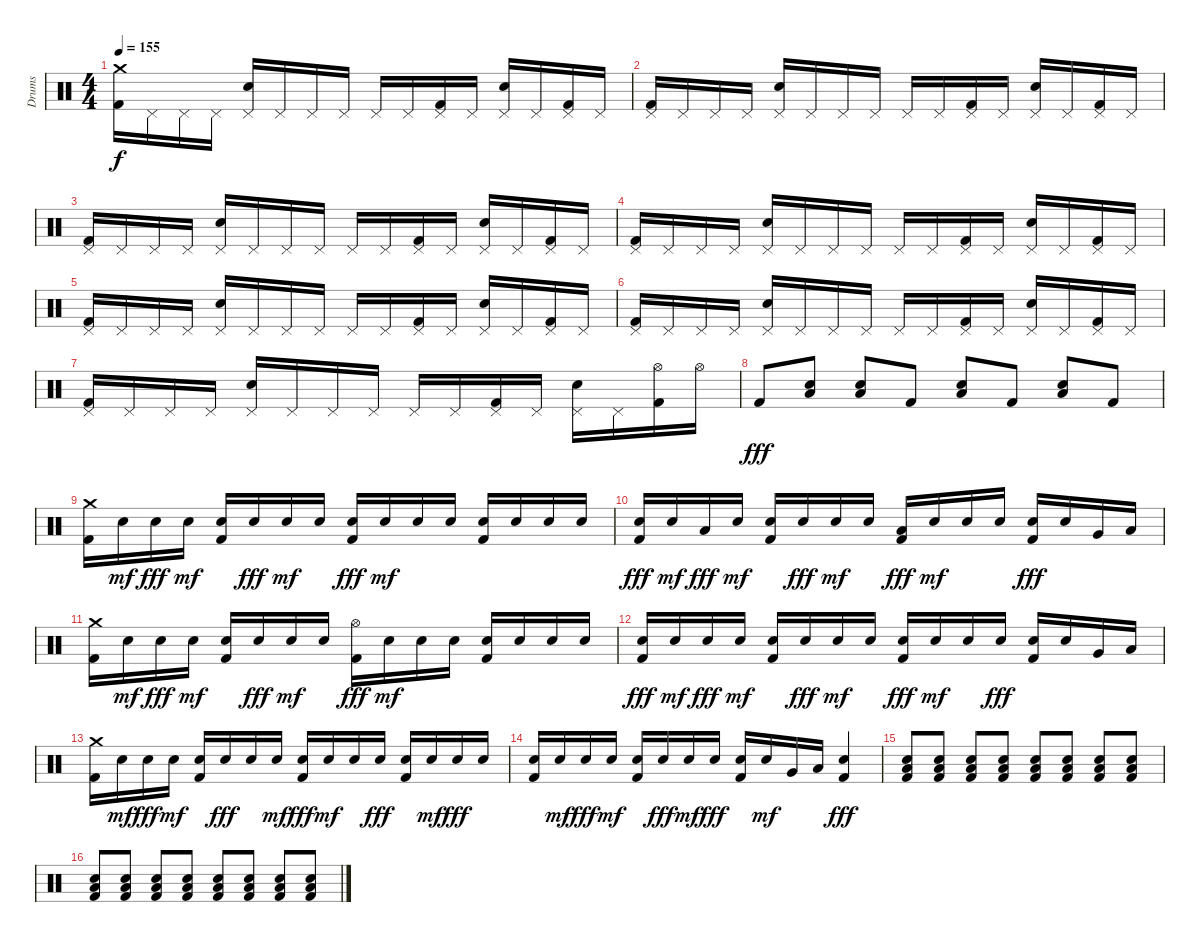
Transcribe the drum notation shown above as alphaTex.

\track ("Drums" "Drums") {instrument percussion}
\staff {score}
\articulation defaults
\ts (4 4)
\tempo 155
\clef neutral
\ks c
("Crash medium (hit)" "Kick (hit) 2").16{dy f} "Pedal Hi-Hat (hit)".16 "Pedal Hi-Hat (hit)".16 "Pedal Hi-Hat (hit)".16 ("Pedal Hi-Hat (hit)" "Electric Snare (hit)").16 "Pedal Hi-Hat (hit)".16 "Pedal Hi-Hat (hit)".16 "Pedal Hi-Hat (hit)".16 "Pedal Hi-Hat (hit)".16 "Pedal Hi-Hat (hit)".16 ("Pedal Hi-Hat (hit)" "Kick (hit) 2").16 "Pedal Hi-Hat (hit)".16 ("Pedal Hi-Hat (hit)" "Electric Snare (hit)").16 "Pedal Hi-Hat (hit)".16 ("Pedal Hi-Hat (hit)" "Kick (hit) 2").16 "Pedal Hi-Hat (hit)".16 |
("Pedal Hi-Hat (hit)" "Kick (hit) 2").16 "Pedal Hi-Hat (hit)".16 "Pedal Hi-Hat (hit)".16 "Pedal Hi-Hat (hit)".16 ("Pedal Hi-Hat (hit)" "Electric Snare (hit)").16 "Pedal Hi-Hat (hit)".16 "Pedal Hi-Hat (hit)".16 "Pedal Hi-Hat (hit)".16 "Pedal Hi-Hat (hit)".16 "Pedal Hi-Hat (hit)".16 ("Pedal Hi-Hat (hit)" "Kick (hit) 2").16 "Pedal Hi-Hat (hit)".16 ("Pedal Hi-Hat (hit)" "Electric Snare (hit)").16 "Pedal Hi-Hat (hit)".16 ("Pedal Hi-Hat (hit)" "Kick (hit) 2").16 "Pedal Hi-Hat (hit)".16 |
("Pedal Hi-Hat (hit)" "Kick (hit) 2").16 "Pedal Hi-Hat (hit)".16 "Pedal Hi-Hat (hit)".16 "Pedal Hi-Hat (hit)".16 ("Pedal Hi-Hat (hit)" "Electric Snare (hit)").16 "Pedal Hi-Hat (hit)".16 "Pedal Hi-Hat (hit)".16 "Pedal Hi-Hat (hit)".16 "Pedal Hi-Hat (hit)".16 "Pedal Hi-Hat (hit)".16 ("Pedal Hi-Hat (hit)" "Kick (hit) 2").16 "Pedal Hi-Hat (hit)".16 ("Pedal Hi-Hat (hit)" "Electric Snare (hit)").16 "Pedal Hi-Hat (hit)".16 ("Pedal Hi-Hat (hit)" "Kick (hit) 2").16 "Pedal Hi-Hat (hit)".16 |
("Pedal Hi-Hat (hit)" "Kick (hit) 2").16 "Pedal Hi-Hat (hit)".16 "Pedal Hi-Hat (hit)".16 "Pedal Hi-Hat (hit)".16 ("Pedal Hi-Hat (hit)" "Electric Snare (hit)").16 "Pedal Hi-Hat (hit)".16 "Pedal Hi-Hat (hit)".16 "Pedal Hi-Hat (hit)".16 "Pedal Hi-Hat (hit)".16 "Pedal Hi-Hat (hit)".16 ("Pedal Hi-Hat (hit)" "Kick (hit) 2").16 "Pedal Hi-Hat (hit)".16 ("Pedal Hi-Hat (hit)" "Electric Snare (hit)").16 "Pedal Hi-Hat (hit)".16 ("Pedal Hi-Hat (hit)" "Kick (hit) 2").16 "Pedal Hi-Hat (hit)".16 |
("Pedal Hi-Hat (hit)" "Kick (hit) 2").16 "Pedal Hi-Hat (hit)".16 "Pedal Hi-Hat (hit)".16 "Pedal Hi-Hat (hit)".16 ("Pedal Hi-Hat (hit)" "Electric Snare (hit)").16 "Pedal Hi-Hat (hit)".16 "Pedal Hi-Hat (hit)".16 "Pedal Hi-Hat (hit)".16 "Pedal Hi-Hat (hit)".16 "Pedal Hi-Hat (hit)".16 ("Pedal Hi-Hat (hit)" "Kick (hit) 2").16 "Pedal Hi-Hat (hit)".16 ("Pedal Hi-Hat (hit)" "Electric Snare (hit)").16 "Pedal Hi-Hat (hit)".16 ("Pedal Hi-Hat (hit)" "Kick (hit) 2").16 "Pedal Hi-Hat (hit)".16 |
("Pedal Hi-Hat (hit)" "Kick (hit) 2").16 "Pedal Hi-Hat (hit)".16 "Pedal Hi-Hat (hit)".16 "Pedal Hi-Hat (hit)".16 ("Pedal Hi-Hat (hit)" "Electric Snare (hit)").16 "Pedal Hi-Hat (hit)".16 "Pedal Hi-Hat (hit)".16 "Pedal Hi-Hat (hit)".16 "Pedal Hi-Hat (hit)".16 "Pedal Hi-Hat (hit)".16 ("Pedal Hi-Hat (hit)" "Kick (hit) 2").16 "Pedal Hi-Hat (hit)".16 ("Pedal Hi-Hat (hit)" "Electric Snare (hit)").16 "Pedal Hi-Hat (hit)".16 ("Pedal Hi-Hat (hit)" "Kick (hit) 2").16 "Pedal Hi-Hat (hit)".16 |
("Pedal Hi-Hat (hit)" "Kick (hit) 2").16 "Pedal Hi-Hat (hit)".16 "Pedal Hi-Hat (hit)".16 "Pedal Hi-Hat (hit)".16 ("Pedal Hi-Hat (hit)" "Electric Snare (hit)").16 "Pedal Hi-Hat (hit)".16 "Pedal Hi-Hat (hit)".16 "Pedal Hi-Hat (hit)".16 "Pedal Hi-Hat (hit)".16 "Pedal Hi-Hat (hit)".16 ("Pedal Hi-Hat (hit)" "Kick (hit) 2").16 "Pedal Hi-Hat (hit)".16 ("Pedal Hi-Hat (hit)" "Electric Snare (hit)").16 "Pedal Hi-Hat (hit)".16 ("Hi-Hat (open)" "Kick (hit) 2").16 "Hi-Hat (open)".16 |
"Kick (hit) 2".8{dy fff} ("Low Floor Tom (hit)" "Electric Snare (hit)").8 ("Low Floor Tom (hit)" "Electric Snare (hit)").8 "Kick (hit) 2".8 ("Low Floor Tom (hit)" "Electric Snare (hit)").8 "Kick (hit) 2".8 ("Low Floor Tom (hit)" "Electric Snare (hit)").8 "Kick (hit) 2".8 |
("Crash medium (hit)" "Kick (hit) 2").16 "Electric Snare (hit)".16{dy mf} "Electric Snare (hit)".16{dy fff} "Electric Snare (hit)".16{dy mf} ("Electric Snare (hit)" "Kick (hit) 2").16 "Electric Snare (hit)".16{dy fff} "Electric Snare (hit)".16{dy mf} "Electric Snare (hit)".16 ("Electric Snare (hit)" "Kick (hit) 2").16{dy fff} "Electric Snare (hit)".16{dy mf} "Electric Snare (hit)".16 "Electric Snare (hit)".16 ("Electric Snare (hit)" "Kick (hit) 2").16 "Electric Snare (hit)".16 "Electric Snare (hit)".16 "Electric Snare (hit)".16 |
("Electric Snare (hit)" "Kick (hit) 2").16{dy fff} "Electric Snare (hit)".16{dy mf} "Low Floor Tom (hit)".16{dy fff} "Electric Snare (hit)".16{dy mf} ("Electric Snare (hit)" "Kick (hit) 2").16 "Electric Snare (hit)".16{dy fff} "Electric Snare (hit)".16{dy mf} "Electric Snare (hit)".16 ("Low Floor Tom (hit)" "Kick (hit) 2").16{dy fff} "Electric Snare (hit)".16{dy mf} "Electric Snare (hit)".16 "Electric Snare (hit)".16 ("Electric Snare (hit)" "Kick (hit) 2").16{dy fff} "Electric Snare (hit)".16 "Very Low Tom (hit)".16 "Low Floor Tom (hit)".16 |
("Crash medium (hit)" "Kick (hit) 2").16 "Electric Snare (hit)".16{dy mf} "Electric Snare (hit)".16{dy fff} "Electric Snare (hit)".16{dy mf} ("Electric Snare (hit)" "Kick (hit) 2").16 "Electric Snare (hit)".16{dy fff} "Electric Snare (hit)".16{dy mf} "Electric Snare (hit)".16 ("Hi-Hat (open)" "Kick (hit) 2").16{dy fff} "Electric Snare (hit)".16{dy mf} "Electric Snare (hit)".16 "Electric Snare (hit)".16 ("Electric Snare (hit)" "Kick (hit) 2").16 "Electric Snare (hit)".16 "Electric Snare (hit)".16 "Electric Snare (hit)".16 |
("Electric Snare (hit)" "Kick (hit) 2").16{dy fff} "Electric Snare (hit)".16{dy mf} "Electric Snare (hit)".16{dy fff} "Electric Snare (hit)".16{dy mf} ("Electric Snare (hit)" "Kick (hit) 2").16 "Electric Snare (hit)".16{dy fff} "Electric Snare (hit)".16{dy mf} "Electric Snare (hit)".16 ("Electric Snare (hit)" "Kick (hit) 2").16{dy fff} "Electric Snare (hit)".16{dy mf} "Electric Snare (hit)".16 "Electric Snare (hit)".16{dy fff} ("Electric Snare (hit)" "Kick (hit) 2").16 "Electric Snare (hit)".16 "Very Low Tom (hit)".16 "Low Floor Tom (hit)".16 |
("Crash medium (hit)" "Kick (hit) 2").16 "Electric Snare (hit)".16{dy mf} "Electric Snare (hit)".16{dy fff} "Electric Snare (hit)".16{dy mf} ("Electric Snare (hit)" "Kick (hit) 2").16 "Electric Snare (hit)".16{dy fff} "Electric Snare (hit)".16 "Electric Snare (hit)".16{dy mf} ("Electric Snare (hit)" "Kick (hit) 2").16{dy fff} "Electric Snare (hit)".16{dy mf} "Electric Snare (hit)".16 "Electric Snare (hit)".16{dy fff} ("Electric Snare (hit)" "Kick (hit) 2").16 "Electric Snare (hit)".16{dy mf} "Electric Snare (hit)".16{dy fff} "Electric Snare (hit)".16 |
("Electric Snare (hit)" "Kick (hit) 2").16 "Electric Snare (hit)".16{dy mf} "Electric Snare (hit)".16{dy fff} "Electric Snare (hit)".16{dy mf} ("Electric Snare (hit)" "Kick (hit) 2").16 "Electric Snare (hit)".16{dy fff} "Electric Snare (hit)".16{dy mf} "Electric Snare (hit)".16{dy fff} ("Electric Snare (hit)" "Kick (hit) 2").16 "Electric Snare (hit)".16{dy mf} "Very Low Tom (hit)".16 "Low Floor Tom (hit)".16 ("Electric Snare (hit)" "Kick (hit) 2").4{dy fff} |
("Low Floor Tom (hit)" "Electric Snare (hit)" "Kick (hit) 2").8 ("Low Floor Tom (hit)" "Electric Snare (hit)" "Kick (hit) 2").8 ("Low Floor Tom (hit)" "Electric Snare (hit)" "Kick (hit) 2").8 ("Low Floor Tom (hit)" "Electric Snare (hit)" "Kick (hit) 2").8 ("Low Floor Tom (hit)" "Electric Snare (hit)" "Kick (hit) 2").8 ("Low Floor Tom (hit)" "Electric Snare (hit)" "Kick (hit) 2").8 ("Low Floor Tom (hit)" "Electric Snare (hit)" "Kick (hit) 2").8 ("Low Floor Tom (hit)" "Electric Snare (hit)" "Kick (hit) 2").8 |
("Low Floor Tom (hit)" "Electric Snare (hit)" "Kick (hit) 2").8 ("Low Floor Tom (hit)" "Electric Snare (hit)" "Kick (hit) 2").8 ("Low Floor Tom (hit)" "Electric Snare (hit)" "Kick (hit) 2").8 ("Low Floor Tom (hit)" "Electric Snare (hit)" "Kick (hit) 2").8 ("Low Floor Tom (hit)" "Electric Snare (hit)" "Kick (hit) 2").8 ("Low Floor Tom (hit)" "Electric Snare (hit)" "Kick (hit) 2").8 ("Low Floor Tom (hit)" "Electric Snare (hit)" "Kick (hit) 2").8 ("Low Floor Tom (hit)" "Electric Snare (hit)" "Kick (hit) 2").8
